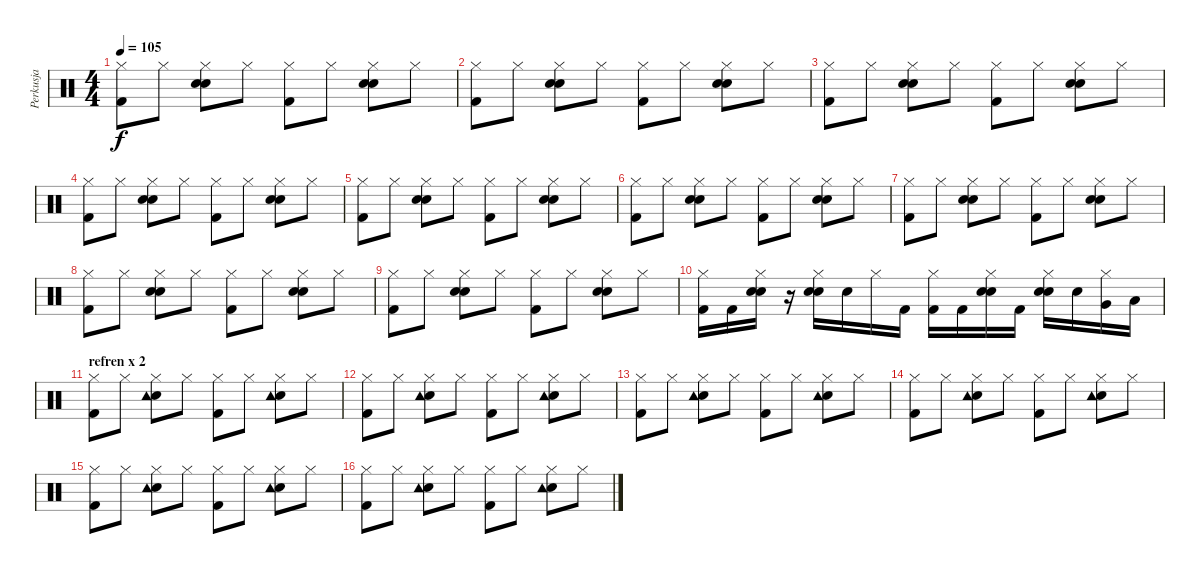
\track ("Perkusja" "Perkusja") {instrument percussion}
\staff {score}
\articulation defaults
\ts (4 4)
\tempo 105
\clef neutral
\ks c
("Kick (hit) 2" "Hi-Hat (closed)").8{dy f} "Hi-Hat (closed)".8 ("Electric Snare (hit)" "Snare (hit) 2" "Hi-Hat (closed)").8 "Hi-Hat (closed)".8 ("Kick (hit) 2" "Hi-Hat (closed)").8 "Hi-Hat (closed)".8 ("Electric Snare (hit)" "Snare (hit) 2" "Hi-Hat (closed)").8 "Hi-Hat (closed)".8 |
("Kick (hit) 2" "Hi-Hat (closed)").8 "Hi-Hat (closed)".8 ("Electric Snare (hit)" "Snare (hit) 2" "Hi-Hat (closed)").8 "Hi-Hat (closed)".8 ("Kick (hit) 2" "Hi-Hat (closed)").8 "Hi-Hat (closed)".8 ("Electric Snare (hit)" "Snare (hit) 2" "Hi-Hat (closed)").8 "Hi-Hat (closed)".8 |
("Kick (hit) 2" "Hi-Hat (closed)").8 "Hi-Hat (closed)".8 ("Electric Snare (hit)" "Snare (hit) 2" "Hi-Hat (closed)").8 "Hi-Hat (closed)".8 ("Kick (hit) 2" "Hi-Hat (closed)").8 "Hi-Hat (closed)".8 ("Electric Snare (hit)" "Snare (hit) 2" "Hi-Hat (closed)").8 "Hi-Hat (closed)".8 |
("Kick (hit) 2" "Hi-Hat (closed)").8 "Hi-Hat (closed)".8 ("Electric Snare (hit)" "Snare (hit) 2" "Hi-Hat (closed)").8 "Hi-Hat (closed)".8 ("Kick (hit) 2" "Hi-Hat (closed)").8 "Hi-Hat (closed)".8 ("Electric Snare (hit)" "Snare (hit) 2" "Hi-Hat (closed)").8 "Hi-Hat (closed)".8 |
("Kick (hit) 2" "Hi-Hat (closed)").8 "Hi-Hat (closed)".8 ("Electric Snare (hit)" "Snare (hit) 2" "Hi-Hat (closed)").8 "Hi-Hat (closed)".8 ("Kick (hit) 2" "Hi-Hat (closed)").8 "Hi-Hat (closed)".8 ("Electric Snare (hit)" "Snare (hit) 2" "Hi-Hat (closed)").8 "Hi-Hat (closed)".8 |
("Kick (hit) 2" "Hi-Hat (closed)").8 "Hi-Hat (closed)".8 ("Electric Snare (hit)" "Snare (hit) 2" "Hi-Hat (closed)").8 "Hi-Hat (closed)".8 ("Kick (hit) 2" "Hi-Hat (closed)").8 "Hi-Hat (closed)".8 ("Electric Snare (hit)" "Snare (hit) 2" "Hi-Hat (closed)").8 "Hi-Hat (closed)".8 |
("Kick (hit) 2" "Hi-Hat (closed)").8 "Hi-Hat (closed)".8 ("Electric Snare (hit)" "Snare (hit) 2" "Hi-Hat (closed)").8 "Hi-Hat (closed)".8 ("Kick (hit) 2" "Hi-Hat (closed)").8 "Hi-Hat (closed)".8 ("Electric Snare (hit)" "Snare (hit) 2" "Hi-Hat (closed)").8 "Hi-Hat (closed)".8 |
("Kick (hit) 2" "Hi-Hat (closed)").8 "Hi-Hat (closed)".8 ("Electric Snare (hit)" "Snare (hit) 2" "Hi-Hat (closed)").8 "Hi-Hat (closed)".8 ("Kick (hit) 2" "Hi-Hat (closed)").8 "Hi-Hat (closed)".8 ("Electric Snare (hit)" "Snare (hit) 2" "Hi-Hat (closed)").8 "Hi-Hat (closed)".8 |
("Kick (hit) 2" "Hi-Hat (closed)").8 "Hi-Hat (closed)".8 ("Electric Snare (hit)" "Snare (hit) 2" "Hi-Hat (closed)").8 "Hi-Hat (closed)".8 ("Kick (hit) 2" "Hi-Hat (closed)").8 "Hi-Hat (closed)".8 ("Electric Snare (hit)" "Snare (hit) 2" "Hi-Hat (closed)").8 "Hi-Hat (closed)".8 |
("Kick (hit) 2" "Hi-Hat (closed)").16 "Kick (hit) 2".16 ("Electric Snare (hit)" "Snare (hit) 2" "Hi-Hat (closed)").16 r.16 ("Electric Snare (hit)" "Snare (hit) 2" "Hi-Hat (closed)").16 "Electric Snare (hit)".16 "Hi-Hat (closed)".16 "Kick (hit) 2".16 ("Kick (hit) 2" "Hi-Hat (closed)").16 "Kick (hit) 2".16 ("Electric Snare (hit)" "Snare (hit) 2" "Hi-Hat (closed)").16 "Kick (hit) 2".16 ("Electric Snare (hit)" "Snare (hit) 2" "Hi-Hat (closed)").16 "Electric Snare (hit)".16 ("Very Low Tom (hit)" "Hi-Hat (closed)").16 "Low Floor Tom (hit)".16 |
\section ("" "refren x 2")
("Kick (hit) 2" "Hi-Hat (closed)").8 "Hi-Hat (closed)".8 ("Electric Snare (hit)" "Tambourine (hit)" "Hi-Hat (closed)").8 "Hi-Hat (closed)".8 ("Kick (hit) 2" "Hi-Hat (closed)").8 "Hi-Hat (closed)".8 ("Electric Snare (hit)" "Tambourine (hit)" "Hi-Hat (closed)").8 "Hi-Hat (closed)".8 |
("Kick (hit) 2" "Hi-Hat (closed)").8 "Hi-Hat (closed)".8 ("Electric Snare (hit)" "Tambourine (hit)" "Hi-Hat (closed)").8 "Hi-Hat (closed)".8 ("Kick (hit) 2" "Hi-Hat (closed)").8 "Hi-Hat (closed)".8 ("Electric Snare (hit)" "Tambourine (hit)" "Hi-Hat (closed)").8 "Hi-Hat (closed)".8 |
("Kick (hit) 2" "Hi-Hat (closed)").8 "Hi-Hat (closed)".8 ("Electric Snare (hit)" "Tambourine (hit)" "Hi-Hat (closed)").8 "Hi-Hat (closed)".8 ("Kick (hit) 2" "Hi-Hat (closed)").8 "Hi-Hat (closed)".8 ("Electric Snare (hit)" "Tambourine (hit)" "Hi-Hat (closed)").8 "Hi-Hat (closed)".8 |
("Kick (hit) 2" "Hi-Hat (closed)").8 "Hi-Hat (closed)".8 ("Electric Snare (hit)" "Tambourine (hit)" "Hi-Hat (closed)").8 "Hi-Hat (closed)".8 ("Kick (hit) 2" "Hi-Hat (closed)").8 "Hi-Hat (closed)".8 ("Electric Snare (hit)" "Tambourine (hit)" "Hi-Hat (closed)").8 "Hi-Hat (closed)".8 |
("Kick (hit) 2" "Hi-Hat (closed)").8 "Hi-Hat (closed)".8 ("Electric Snare (hit)" "Tambourine (hit)" "Hi-Hat (closed)").8 "Hi-Hat (closed)".8 ("Kick (hit) 2" "Hi-Hat (closed)").8 "Hi-Hat (closed)".8 ("Electric Snare (hit)" "Tambourine (hit)" "Hi-Hat (closed)").8 "Hi-Hat (closed)".8 |
("Kick (hit) 2" "Hi-Hat (closed)").8 "Hi-Hat (closed)".8 ("Electric Snare (hit)" "Tambourine (hit)" "Hi-Hat (closed)").8 "Hi-Hat (closed)".8 ("Kick (hit) 2" "Hi-Hat (closed)").8 "Hi-Hat (closed)".8 ("Electric Snare (hit)" "Tambourine (hit)" "Hi-Hat (closed)").8 "Hi-Hat (closed)".8
